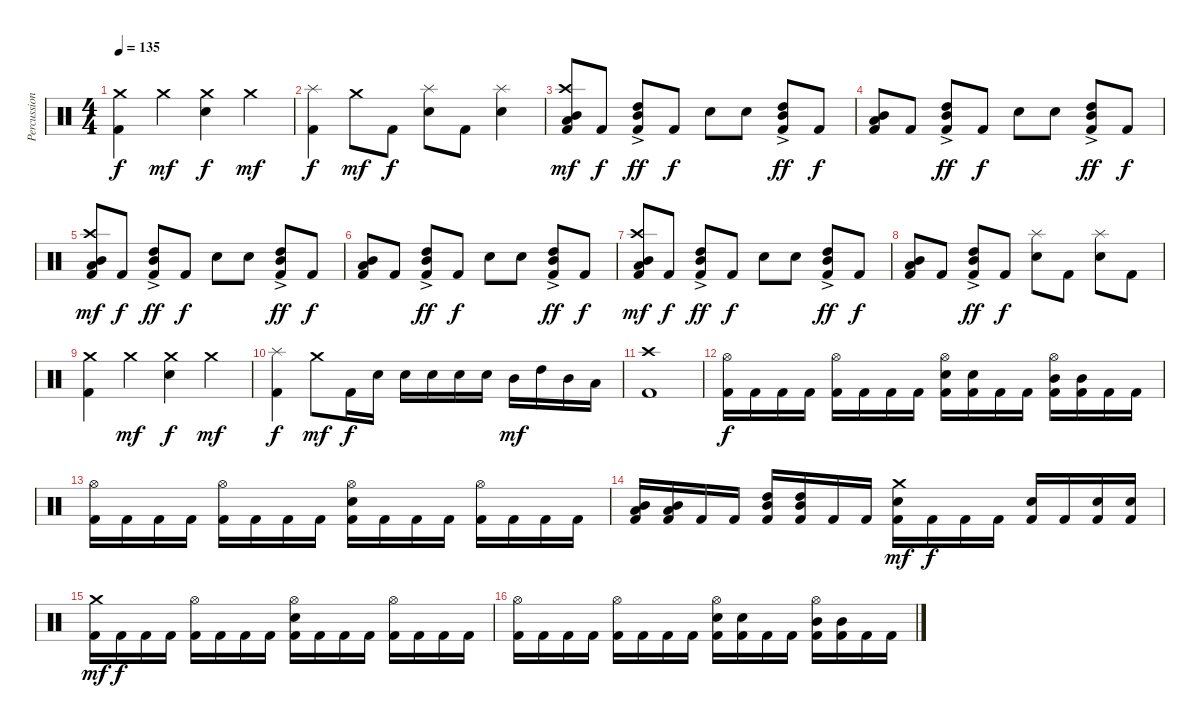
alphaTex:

\track ("Percussion" "Percussion") {instrument percussion}
\staff {score}
\articulation defaults
\ts (4 4)
\tempo 135
\clef neutral
\ks c
("Crash medium (hit)" "Kick (hit) 2").4{dy f} "Crash medium (hit)".4{dy mf} ("Crash medium (hit)" "Snare (hit) 2").4{dy f} "Crash medium (hit)".4{dy mf} |
("Splash (hit)" "Kick (hit) 2").4{dy f} "Crash medium (hit)".8{dy mf} "Kick (hit) 2".8{dy f} ("Splash (hit)" "Snare (hit) 2").8 "Kick (hit) 2".8 ("Splash (hit)" "Snare (hit) 2").4 |
("Crash high (hit)" "Mid Tom (hit)" "Low Tom (hit)" "Kick (hit) 2").8{dy mf} "Kick (hit) 2".8{dy f} ("High Tom (hit)"{ac} "Mid Tom (hit)"{ac} "Kick (hit) 2").8{dy ff} "Kick (hit) 2".8{dy f} "Snare (hit) 2".8 "Snare (hit) 2".8 ("High Tom (hit)"{ac} "Mid Tom (hit)"{ac} "Kick (hit) 2").8{dy ff} "Kick (hit) 2".8{dy f} |
("Mid Tom (hit)" "Low Tom (hit)" "Kick (hit) 2").8 "Kick (hit) 2".8 ("High Tom (hit)"{ac} "Mid Tom (hit)"{ac} "Kick (hit) 2").8{dy ff} "Kick (hit) 2".8{dy f} "Snare (hit) 2".8 "Snare (hit) 2".8 ("High Tom (hit)"{ac} "Mid Tom (hit)"{ac} "Kick (hit) 2").8{dy ff} "Kick (hit) 2".8{dy f} |
("Crash high (hit)" "Mid Tom (hit)" "Low Tom (hit)" "Kick (hit) 2").8{dy mf} "Kick (hit) 2".8{dy f} ("High Tom (hit)"{ac} "Mid Tom (hit)"{ac} "Kick (hit) 2").8{dy ff} "Kick (hit) 2".8{dy f} "Snare (hit) 2".8 "Snare (hit) 2".8 ("High Tom (hit)"{ac} "Mid Tom (hit)"{ac} "Kick (hit) 2").8{dy ff} "Kick (hit) 2".8{dy f} |
("Mid Tom (hit)" "Low Tom (hit)" "Kick (hit) 2").8 "Kick (hit) 2".8 ("High Tom (hit)"{ac} "Mid Tom (hit)"{ac} "Kick (hit) 2").8{dy ff} "Kick (hit) 2".8{dy f} "Snare (hit) 2".8 "Snare (hit) 2".8 ("High Tom (hit)"{ac} "Mid Tom (hit)"{ac} "Kick (hit) 2").8{dy ff} "Kick (hit) 2".8{dy f} |
("Crash high (hit)" "Mid Tom (hit)" "Low Tom (hit)" "Kick (hit) 2").8{dy mf} "Kick (hit) 2".8{dy f} ("High Tom (hit)"{ac} "Mid Tom (hit)"{ac} "Kick (hit) 2").8{dy ff} "Kick (hit) 2".8{dy f} "Snare (hit) 2".8 "Snare (hit) 2".8 ("High Tom (hit)"{ac} "Mid Tom (hit)"{ac} "Kick (hit) 2").8{dy ff} "Kick (hit) 2".8{dy f} |
("Mid Tom (hit)" "Low Tom (hit)" "Kick (hit) 2").8 "Kick (hit) 2".8 ("High Tom (hit)"{ac} "Mid Tom (hit)"{ac} "Kick (hit) 2").8{dy ff} "Kick (hit) 2".8{dy f} ("Splash (hit)" "Snare (hit) 2").8 "Kick (hit) 2".8 ("Splash (hit)" "Snare (hit) 2").8 "Kick (hit) 2".8 |
("Crash medium (hit)" "Kick (hit) 2").4 "Crash medium (hit)".4{dy mf} ("Crash medium (hit)" "Snare (hit) 2").4{dy f} "Crash medium (hit)".4{dy mf} |
("Splash (hit)" "Kick (hit) 2").4{dy f} "Crash medium (hit)".8{dy mf} "Kick (hit) 2".16{dy f} "Snare (hit) 2".16 "Snare (hit) 2".16 "Snare (hit) 2".16 "Snare (hit) 2".16 "Snare (hit) 2".16 "Mid Tom (hit)".16{dy mf} "High Tom (hit)".16 "Mid Tom (hit)".16 "Low Tom (hit)".16 |
("Crash high (hit)" "Kick (hit) 2").1 |
("Hi-Hat (open)" "Kick (hit) 2").16{dy f} "Kick (hit) 2".16 "Kick (hit) 2".16 "Kick (hit) 2".16 ("Hi-Hat (open)" "Kick (hit) 2").16 "Kick (hit) 2".16 "Kick (hit) 2".16 "Kick (hit) 2".16 ("Hi-Hat (open)" "Snare (hit) 2" "Kick (hit) 2").16 ("Snare (hit) 2" "Kick (hit) 2").16 "Kick (hit) 2".16 "Kick (hit) 2".16 ("Hi-Hat (open)" "Mid Tom (hit)" "Kick (hit) 2").16 ("Mid Tom (hit)" "Kick (hit) 2").16 "Kick (hit) 2".16 "Kick (hit) 2".16 |
("Hi-Hat (open)" "Kick (hit) 2").16 "Kick (hit) 2".16 "Kick (hit) 2".16 "Kick (hit) 2".16 ("Hi-Hat (open)" "Kick (hit) 2").16 "Kick (hit) 2".16 "Kick (hit) 2".16 "Kick (hit) 2".16 ("Hi-Hat (open)" "Snare (hit) 2" "Kick (hit) 2").16 "Kick (hit) 2".16 "Kick (hit) 2".16 "Kick (hit) 2".16 ("Hi-Hat (open)" "Kick (hit) 2").16 "Kick (hit) 2".16 "Kick (hit) 2".16 "Kick (hit) 2".16 |
("Mid Tom (hit)" "Low Tom (hit)" "Kick (hit) 2").16 ("Mid Tom (hit)" "Low Tom (hit)" "Kick (hit) 2").16 "Kick (hit) 2".16 "Kick (hit) 2".16 ("High Tom (hit)" "Mid Tom (hit)" "Kick (hit) 2").16 ("High Tom (hit)" "Mid Tom (hit)" "Kick (hit) 2").16 "Kick (hit) 2".16 "Kick (hit) 2".16 ("Crash medium (hit)" "Snare (hit) 2" "Kick (hit) 2").16{dy mf} "Kick (hit) 2".16{dy f} "Kick (hit) 2".16 "Kick (hit) 2".16 ("Snare (hit) 2" "Kick (hit) 2").16 "Kick (hit) 2".16 ("Snare (hit) 2" "Kick (hit) 2").16 ("Snare (hit) 2" "Kick (hit) 2").16 |
("Crash medium (hit)" "Kick (hit) 2").16{dy mf} "Kick (hit) 2".16{dy f} "Kick (hit) 2".16 "Kick (hit) 2".16 ("Hi-Hat (open)" "Kick (hit) 2").16 "Kick (hit) 2".16 "Kick (hit) 2".16 "Kick (hit) 2".16 ("Hi-Hat (open)" "Snare (hit) 2" "Kick (hit) 2").16 "Kick (hit) 2".16 "Kick (hit) 2".16 "Kick (hit) 2".16 ("Hi-Hat (open)" "Kick (hit) 2").16 "Kick (hit) 2".16 "Kick (hit) 2".16 "Kick (hit) 2".16 |
("Hi-Hat (open)" "Kick (hit) 2").16 "Kick (hit) 2".16 "Kick (hit) 2".16 "Kick (hit) 2".16 ("Hi-Hat (open)" "Kick (hit) 2").16 "Kick (hit) 2".16 "Kick (hit) 2".16 "Kick (hit) 2".16 ("Hi-Hat (open)" "Snare (hit) 2" "Kick (hit) 2").16 ("Snare (hit) 2" "Kick (hit) 2").16 "Kick (hit) 2".16 "Kick (hit) 2".16 ("Hi-Hat (open)" "Mid Tom (hit)" "Kick (hit) 2").16 ("Mid Tom (hit)" "Kick (hit) 2").16 "Kick (hit) 2".16 "Kick (hit) 2".16
